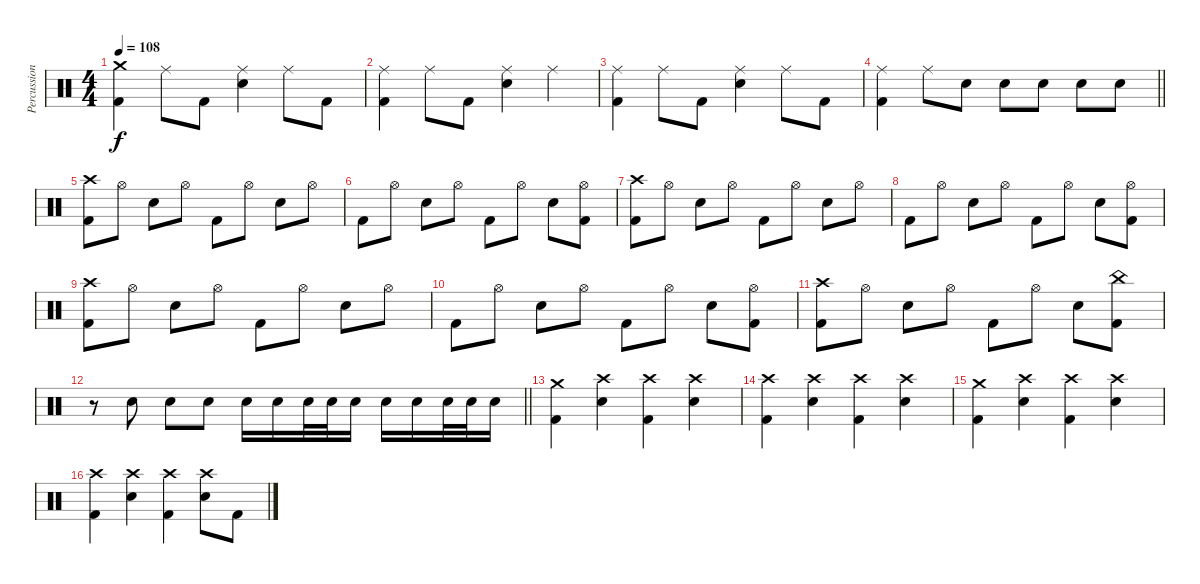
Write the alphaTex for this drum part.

\track ("Percussion" "Percussion") {instrument percussion}
\staff
\articulation defaults
\ts (4 4)
\tempo 108
\clef neutral
\ks c
("Crash medium (hit)" "Kick (hit) 2").4{dy f} "Ride (middle)".8 "Kick (hit) 2".8 ("Ride (middle)" "Snare (hit) 2").4 "Ride (middle)".8 "Kick (hit) 2".8 |
("Ride (middle)" "Kick (hit) 2").4 "Ride (middle)".8 "Kick (hit) 2".8 ("Ride (middle)" "Snare (hit) 2").4 "Ride (middle)".4 |
("Ride (middle)" "Kick (hit) 2").4 "Ride (middle)".8 "Kick (hit) 2".8 ("Ride (middle)" "Snare (hit) 2").4 "Ride (middle)".8 "Kick (hit) 2".8 |
\barLineRight lightlight
("Ride (middle)" "Kick (hit) 2").4 "Ride (middle)".8 "Snare (hit) 2".8 "Snare (hit) 2".8{volume 8} "Snare (hit) 2".8{volume 13} "Snare (hit) 2".8 "Snare (hit) 2".8 |
("Crash high (hit)" "Kick (hit) 2").8 "Hi-Hat (open)".8 "Snare (hit) 2".8 "Hi-Hat (open)".8 "Kick (hit) 2".8 "Hi-Hat (open)".8 "Snare (hit) 2".8 "Hi-Hat (open)".8 |
"Kick (hit) 2".8 "Hi-Hat (open)".8 "Snare (hit) 2".8 "Hi-Hat (open)".8 "Kick (hit) 2".8 "Hi-Hat (open)".8 "Snare (hit) 2".8 ("Hi-Hat (open)" "Kick (hit) 2").8 |
("Crash high (hit)" "Kick (hit) 2").8 "Hi-Hat (open)".8 "Snare (hit) 2".8 "Hi-Hat (open)".8 "Kick (hit) 2".8 "Hi-Hat (open)".8 "Snare (hit) 2".8 "Hi-Hat (open)".8 |
"Kick (hit) 2".8 "Hi-Hat (open)".8 "Snare (hit) 2".8 "Hi-Hat (open)".8 "Kick (hit) 2".8 "Hi-Hat (open)".8 "Snare (hit) 2".8 ("Hi-Hat (open)" "Kick (hit) 2").8 |
("Crash high (hit)" "Kick (hit) 2").8 "Hi-Hat (open)".8 "Snare (hit) 2".8 "Hi-Hat (open)".8 "Kick (hit) 2".8 "Hi-Hat (open)".8 "Snare (hit) 2".8 "Hi-Hat (open)".8 |
"Kick (hit) 2".8 "Hi-Hat (open)".8 "Snare (hit) 2".8 "Hi-Hat (open)".8 "Kick (hit) 2".8 "Hi-Hat (open)".8 "Snare (hit) 2".8 ("Hi-Hat (open)" "Kick (hit) 2").8 |
("Crash high (hit)" "Kick (hit) 2").8 "Hi-Hat (open)".8 "Snare (hit) 2".8 "Hi-Hat (open)".8 "Kick (hit) 2".8 "Hi-Hat (open)".8 "Snare (hit) 2".8 ("China (hit)" "Kick (hit) 2").8 |
\barLineRight lightlight
r.8 "Snare (hit) 2".8{volume 8} "Snare (hit) 2".8{volume 13} "Snare (hit) 2".8 "Snare (hit) 2".16 "Snare (hit) 2".16 "Snare (hit) 2".32 "Snare (hit) 2".32 "Snare (hit) 2".16 "Snare (hit) 2".16 "Snare (hit) 2".16 "Snare (hit) 2".32 "Snare (hit) 2".32 "Snare (hit) 2".16 |
\section ("" "")
("Crash medium (hit)" "Kick (hit) 2").4 ("Crash high (hit)" "Snare (hit) 2").4 ("Crash high (hit)" "Kick (hit) 2").4 ("Crash high (hit)" "Snare (hit) 2").4 |
("Crash high (hit)" "Kick (hit) 2").4 ("Crash high (hit)" "Snare (hit) 2").4 ("Crash high (hit)" "Kick (hit) 2").4 ("Crash high (hit)" "Snare (hit) 2").4 |
("Crash medium (hit)" "Kick (hit) 2").4 ("Crash high (hit)" "Snare (hit) 2").4 ("Crash high (hit)" "Kick (hit) 2").4 ("Crash high (hit)" "Snare (hit) 2").4 |
("Crash high (hit)" "Kick (hit) 2").4 ("Crash high (hit)" "Snare (hit) 2").4 ("Crash high (hit)" "Kick (hit) 2").4 ("Crash high (hit)" "Snare (hit) 2").8 "Kick (hit) 2".8
